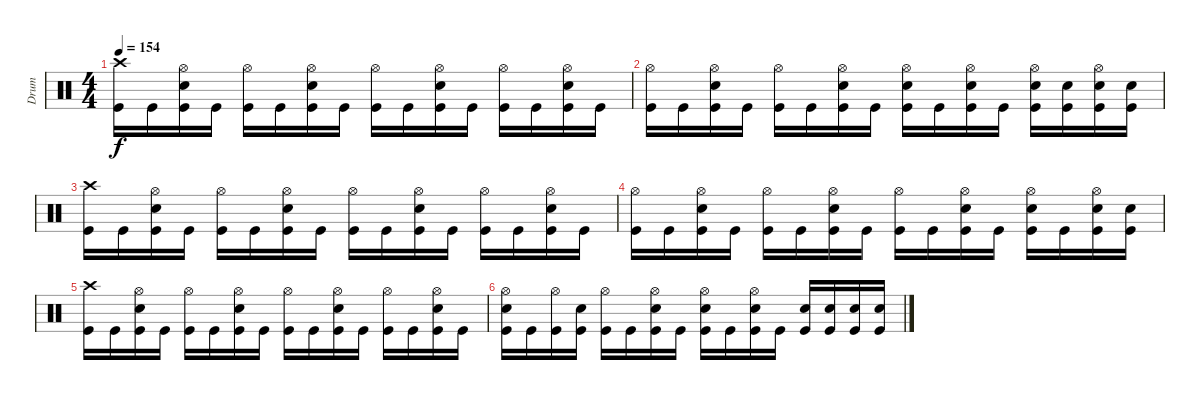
\track ("Drum" "Drum") {instrument percussion}
\staff {score}
\articulation defaults
\ts (4 4)
\tempo 154
\clef neutral
\ks c
("Kick (hit)" "Crash high (hit)").16{dy f} "Kick (hit)".16 ("Kick (hit)" "Electric Snare (hit)" "Hi-Hat (open)").16 "Kick (hit)".16 ("Kick (hit)" "Hi-Hat (open)").16 "Kick (hit)".16 ("Kick (hit)" "Electric Snare (hit)" "Hi-Hat (open)").16 "Kick (hit)".16 ("Kick (hit)" "Hi-Hat (open)").16 "Kick (hit)".16 ("Kick (hit)" "Electric Snare (hit)" "Hi-Hat (open)").16 "Kick (hit)".16 ("Kick (hit)" "Hi-Hat (open)").16 "Kick (hit)".16 ("Kick (hit)" "Electric Snare (hit)" "Hi-Hat (open)").16 "Kick (hit)".16 |
("Kick (hit)" "Hi-Hat (open)").16 "Kick (hit)".16 ("Kick (hit)" "Electric Snare (hit)" "Hi-Hat (open)").16 "Kick (hit)".16 ("Kick (hit)" "Hi-Hat (open)").16 "Kick (hit)".16 ("Kick (hit)" "Electric Snare (hit)" "Hi-Hat (open)").16 "Kick (hit)".16 ("Kick (hit)" "Electric Snare (hit)" "Hi-Hat (open)").16 "Kick (hit)".16 ("Kick (hit)" "Electric Snare (hit)" "Hi-Hat (open)").16 "Kick (hit)".16 ("Kick (hit)" "Electric Snare (hit)" "Hi-Hat (open)").16 ("Kick (hit)" "Electric Snare (hit)").16 ("Kick (hit)" "Electric Snare (hit)" "Hi-Hat (open)").16 ("Kick (hit)" "Electric Snare (hit)").16 |
("Kick (hit)" "Crash high (hit)").16 "Kick (hit)".16 ("Kick (hit)" "Electric Snare (hit)" "Hi-Hat (open)").16 "Kick (hit)".16 ("Kick (hit)" "Hi-Hat (open)").16 "Kick (hit)".16 ("Kick (hit)" "Electric Snare (hit)" "Hi-Hat (open)").16 "Kick (hit)".16 ("Kick (hit)" "Hi-Hat (open)").16 "Kick (hit)".16 ("Kick (hit)" "Electric Snare (hit)" "Hi-Hat (open)").16 "Kick (hit)".16 ("Kick (hit)" "Hi-Hat (open)").16 "Kick (hit)".16 ("Kick (hit)" "Electric Snare (hit)" "Hi-Hat (open)").16 "Kick (hit)".16 |
("Kick (hit)" "Hi-Hat (open)").16 "Kick (hit)".16 ("Kick (hit)" "Electric Snare (hit)" "Hi-Hat (open)").16 "Kick (hit)".16 ("Kick (hit)" "Hi-Hat (open)").16 "Kick (hit)".16 ("Kick (hit)" "Electric Snare (hit)" "Hi-Hat (open)").16 "Kick (hit)".16 ("Kick (hit)" "Hi-Hat (open)").16 "Kick (hit)".16 ("Kick (hit)" "Electric Snare (hit)" "Hi-Hat (open)").16 "Kick (hit)".16 ("Kick (hit)" "Electric Snare (hit)" "Hi-Hat (open)").16 "Kick (hit)".16 ("Kick (hit)" "Electric Snare (hit)" "Hi-Hat (open)").16 ("Kick (hit)" "Electric Snare (hit)").16 |
("Kick (hit)" "Crash high (hit)").16 "Kick (hit)".16 ("Kick (hit)" "Electric Snare (hit)" "Hi-Hat (open)").16 "Kick (hit)".16 ("Kick (hit)" "Hi-Hat (open)").16 "Kick (hit)".16 ("Kick (hit)" "Electric Snare (hit)" "Hi-Hat (open)").16 "Kick (hit)".16 ("Kick (hit)" "Hi-Hat (open)").16 "Kick (hit)".16 ("Kick (hit)" "Electric Snare (hit)" "Hi-Hat (open)").16 "Kick (hit)".16 ("Kick (hit)" "Hi-Hat (open)").16 "Kick (hit)".16 ("Kick (hit)" "Electric Snare (hit)" "Hi-Hat (open)").16 "Kick (hit)".16 |
("Kick (hit)" "Electric Snare (hit)" "Hi-Hat (open)").16 "Kick (hit)".16 ("Kick (hit)" "Hi-Hat (open)").16 ("Kick (hit)" "Electric Snare (hit)").16 ("Kick (hit)" "Hi-Hat (open)").16 "Kick (hit)".16 ("Kick (hit)" "Electric Snare (hit)" "Hi-Hat (open)").16 "Kick (hit)".16 ("Kick (hit)" "Electric Snare (hit)" "Hi-Hat (open)").16 "Kick (hit)".16 ("Kick (hit)" "Electric Snare (hit)" "Hi-Hat (open)").16 "Kick (hit)".16 ("Kick (hit)" "Electric Snare (hit)").16 ("Kick (hit)" "Electric Snare (hit)").16 ("Kick (hit)" "Electric Snare (hit)").16 ("Kick (hit)" "Electric Snare (hit)").16
